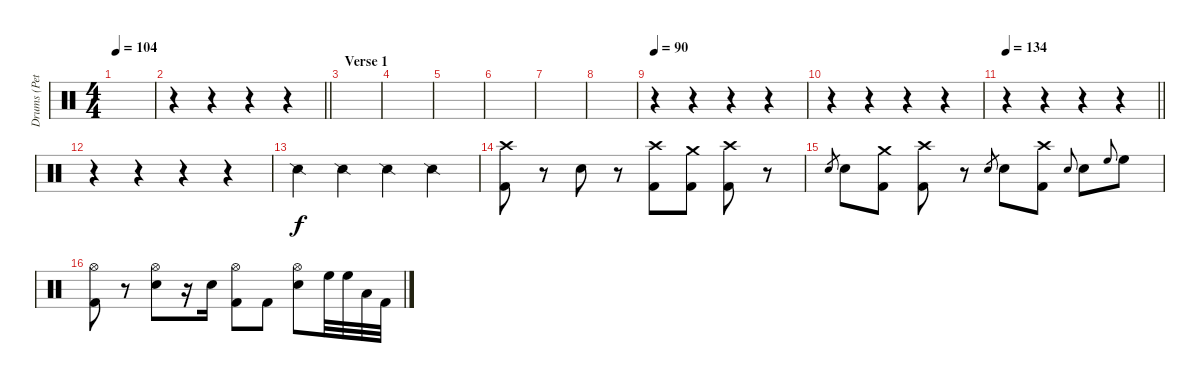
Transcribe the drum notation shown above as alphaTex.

\track ("Drums (Peter)" "Drums (Pet") {instrument percussion}
\staff {score}
\articulation defaults
\ts (4 4)
\tempo 104
\clef neutral
\ks c
|
\barLineRight lightlight
r.4 r.4 r.4 r.4 |
\section ("" "Verse 1")
|
|
|
|
|
|
\tempo 90
r.4 r.4 r.4 r.4 |
r.4 r.4 r.4 r.4 |
\tempo 134
\barLineRight lightlight
r.4 r.4 r.4 r.4 |
r.4 r.4 r.4 r.4 |
"Snare (side stick) 2".4 "Snare (side stick) 2".4 "Snare (side stick) 2".4 "Snare (side stick) 2".4 |
("Crash high (hit)" "Kick (hit) 2").8 r.8 "Snare (hit) 2".8 r.8 ("Crash high (hit)" "Kick (hit) 2").8 ("Crash medium (hit)" "Kick (hit) 2").8 ("Crash high (hit)" "Kick (hit) 2").8 r.8 |
"Electric Snare (hit)".8{gr} "Snare (hit) 2".8 ("Crash medium (hit)" "Kick (hit) 2").8 ("Crash high (hit)" "Kick (hit) 2").8 r.8 "Snare (hit) 2".8{gr} "Snare (hit) 2".8 ("Crash high (hit)" "Kick (hit) 2").8 "Snare (hit) 2".8{gr onbeat} "Snare (hit) 2".8 "High Floor Tom (hit)".8{gr onbeat} "High Floor Tom (hit)".8 |
("Hi-Hat (open)" "Kick (hit) 2").8 r.8 ("Hi-Hat (open)" "Snare (hit) 2").8 r.16 "Snare (hit) 2".16 ("Hi-Hat (open)" "Kick (hit) 2").8 "Kick (hit) 2".8 ("Hi-Hat (open)" "Snare (hit) 2").8 "High Floor Tom (hit)".32 "High Floor Tom (hit)".32 "Low Floor Tom (hit)".32 "Kick (hit) 2".32
